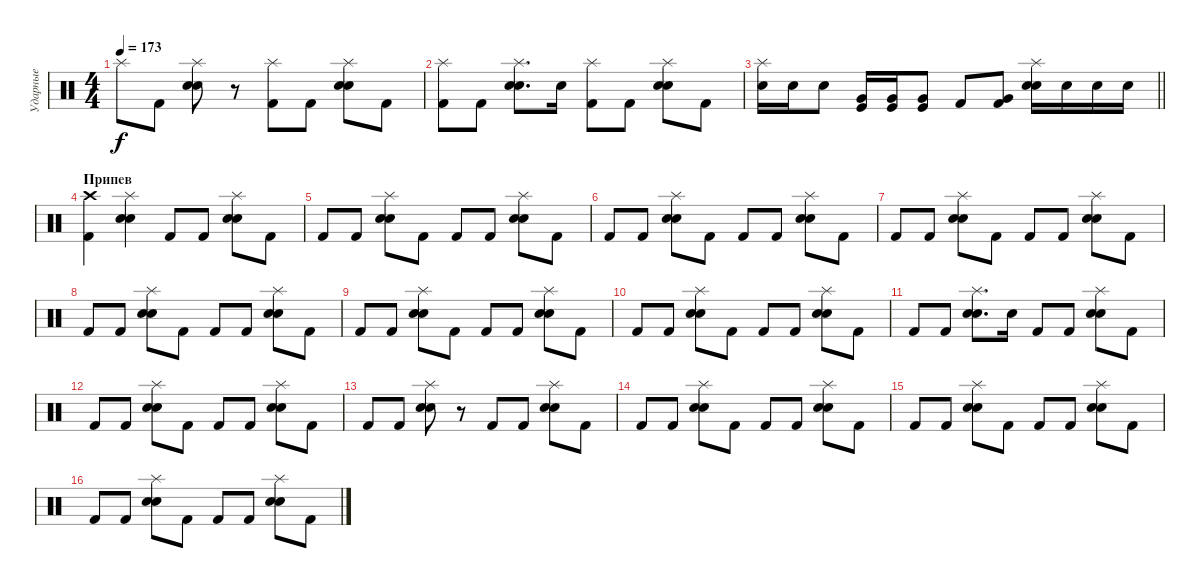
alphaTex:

\track ("Ударные" "Ударные") {instrument percussion}
\staff {score}
\articulation defaults
\ts (4 4)
\tempo 173
\clef neutral
\ks c "Splash (hit)".8{dy f} "Kick (hit) 2".8
("Splash (hit)" "Electric Snare (hit)" "Snare (hit) 2").8 r.8 ("Splash (hit)" "Kick (hit) 2").8 "Kick (hit) 2".8 ("Splash (hit)" "Electric Snare (hit)" "Snare (hit) 2").8 "Kick (hit) 2".8 |
("Splash (hit)" "Kick (hit) 2").8 "Kick (hit) 2".8 ("Splash (hit)" "Electric Snare (hit)" "Snare (hit) 2").8{d} "Electric Snare (hit)".16 ("Splash (hit)" "Kick (hit) 2").8 "Kick (hit) 2".8 ("Splash (hit)" "Electric Snare (hit)" "Snare (hit) 2").8 "Kick (hit) 2".8 |
\barLineRight lightlight
("Splash (hit)" "Electric Snare (hit)").16 "Electric Snare (hit)".16 "Electric Snare (hit)".8 ("Very Low Tom (hit)" "Kick (hit)").16 ("Very Low Tom (hit)" "Kick (hit)").16 ("Very Low Tom (hit)" "Kick (hit)").8 "Kick (hit) 2".8 ("Very Low Tom (hit)" "Kick (hit) 2").8 ("Splash (hit)" "Electric Snare (hit)" "Snare (hit) 2").16 "Electric Snare (hit)".16 "Electric Snare (hit)".16 "Electric Snare (hit)".16 |
\section ("" "Припев")
("Crash high (hit)" "Kick (hit) 2").4 ("Splash (hit)" "Electric Snare (hit)" "Snare (hit) 2").4 "Kick (hit) 2".8 "Kick (hit) 2".8 ("Splash (hit)" "Electric Snare (hit)" "Snare (hit) 2").8 "Kick (hit) 2".8 |
"Kick (hit) 2".8 "Kick (hit) 2".8 ("Splash (hit)" "Electric Snare (hit)" "Snare (hit) 2").8 "Kick (hit) 2".8 "Kick (hit) 2".8 "Kick (hit) 2".8 ("Splash (hit)" "Electric Snare (hit)" "Snare (hit) 2").8 "Kick (hit) 2".8 |
"Kick (hit) 2".8 "Kick (hit) 2".8 ("Splash (hit)" "Electric Snare (hit)" "Snare (hit) 2").8 "Kick (hit) 2".8 "Kick (hit) 2".8 "Kick (hit) 2".8 ("Splash (hit)" "Electric Snare (hit)" "Snare (hit) 2").8 "Kick (hit) 2".8 |
"Kick (hit) 2".8 "Kick (hit) 2".8 ("Splash (hit)" "Electric Snare (hit)" "Snare (hit) 2").8 "Kick (hit) 2".8 "Kick (hit) 2".8 "Kick (hit) 2".8 ("Splash (hit)" "Electric Snare (hit)" "Snare (hit) 2").8 "Kick (hit) 2".8 |
"Kick (hit) 2".8 "Kick (hit) 2".8 ("Splash (hit)" "Electric Snare (hit)" "Snare (hit) 2").8 "Kick (hit) 2".8 "Kick (hit) 2".8 "Kick (hit) 2".8 ("Splash (hit)" "Electric Snare (hit)" "Snare (hit) 2").8 "Kick (hit) 2".8 |
"Kick (hit) 2".8 "Kick (hit) 2".8 ("Splash (hit)" "Electric Snare (hit)" "Snare (hit) 2").8 "Kick (hit) 2".8 "Kick (hit) 2".8 "Kick (hit) 2".8 ("Splash (hit)" "Electric Snare (hit)" "Snare (hit) 2").8 "Kick (hit) 2".8 |
"Kick (hit) 2".8 "Kick (hit) 2".8 ("Splash (hit)" "Electric Snare (hit)" "Snare (hit) 2").8 "Kick (hit) 2".8 "Kick (hit) 2".8 "Kick (hit) 2".8 ("Splash (hit)" "Electric Snare (hit)" "Snare (hit) 2").8 "Kick (hit) 2".8 |
"Kick (hit) 2".8 "Kick (hit) 2".8 ("Splash (hit)" "Electric Snare (hit)" "Snare (hit) 2").8{d} "Electric Snare (hit)".16 "Kick (hit) 2".8 "Kick (hit) 2".8 ("Splash (hit)" "Electric Snare (hit)" "Snare (hit) 2").8 "Kick (hit) 2".8 |
"Kick (hit) 2".8 "Kick (hit) 2".8 ("Splash (hit)" "Electric Snare (hit)" "Snare (hit) 2").8 "Kick (hit) 2".8 "Kick (hit) 2".8 "Kick (hit) 2".8 ("Splash (hit)" "Electric Snare (hit)" "Snare (hit) 2").8 "Kick (hit) 2".8 |
"Kick (hit) 2".8 "Kick (hit) 2".8 ("Splash (hit)" "Electric Snare (hit)" "Snare (hit) 2").8 r.8 "Kick (hit) 2".8 "Kick (hit) 2".8 ("Splash (hit)" "Electric Snare (hit)" "Snare (hit) 2").8 "Kick (hit) 2".8 |
"Kick (hit) 2".8 "Kick (hit) 2".8 ("Splash (hit)" "Electric Snare (hit)" "Snare (hit) 2").8 "Kick (hit) 2".8 "Kick (hit) 2".8 "Kick (hit) 2".8 ("Splash (hit)" "Electric Snare (hit)" "Snare (hit) 2").8 "Kick (hit) 2".8 |
"Kick (hit) 2".8 "Kick (hit) 2".8 ("Splash (hit)" "Electric Snare (hit)" "Snare (hit) 2").8 "Kick (hit) 2".8 "Kick (hit) 2".8 "Kick (hit) 2".8 ("Splash (hit)" "Electric Snare (hit)" "Snare (hit) 2").8 "Kick (hit) 2".8 |
"Kick (hit) 2".8 "Kick (hit) 2".8 ("Splash (hit)" "Electric Snare (hit)" "Snare (hit) 2").8 "Kick (hit) 2".8 "Kick (hit) 2".8 "Kick (hit) 2".8 ("Splash (hit)" "Electric Snare (hit)" "Snare (hit) 2").8 "Kick (hit) 2".8
